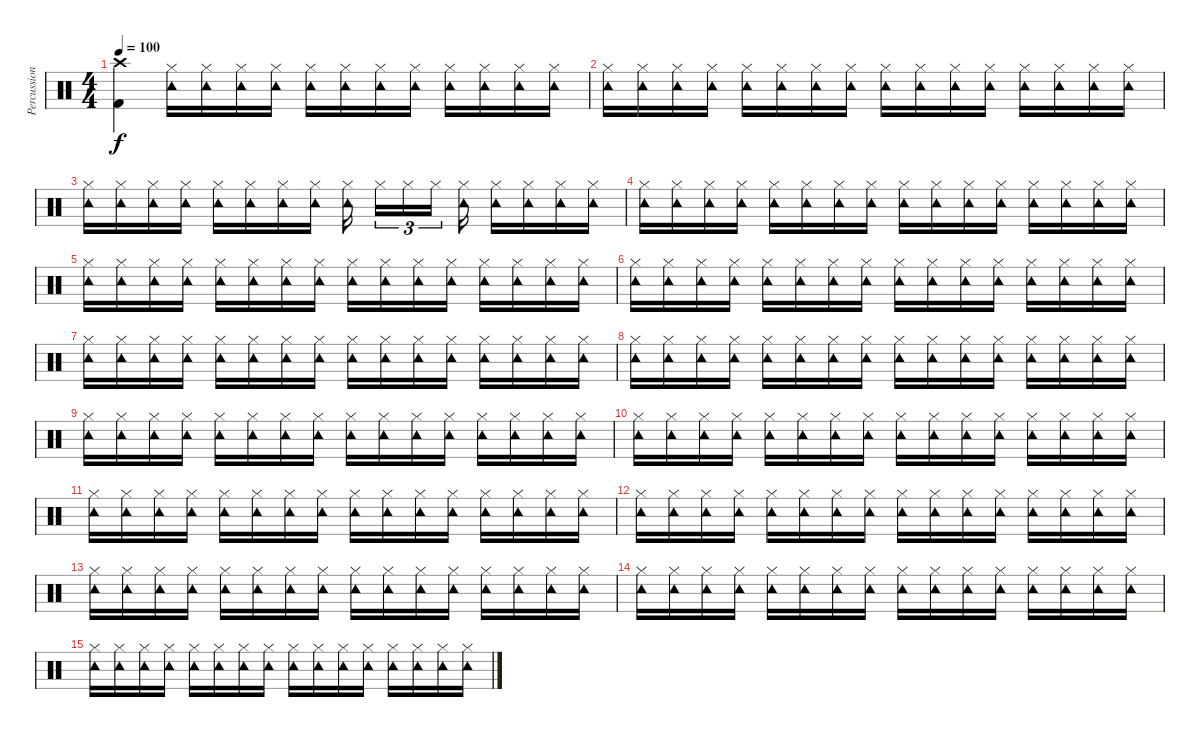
\track ("Percussion" "Percussion") {instrument percussion}
\staff {score}
\articulation defaults
\ts (4 4)
\tempo 100
\clef neutral
\ks c
("Crash high (hit)" "Kick (hit) 2").4{dy f} ("Hi-Hat (closed)" "Tambourine (hit)").16 ("Hi-Hat (closed)" "Tambourine (hit)").16 ("Hi-Hat (closed)" "Tambourine (hit)").16 ("Hi-Hat (closed)" "Tambourine (hit)").16 ("Hi-Hat (closed)" "Tambourine (hit)").16 ("Hi-Hat (closed)" "Tambourine (hit)").16 ("Hi-Hat (closed)" "Tambourine (hit)").16 ("Hi-Hat (closed)" "Tambourine (hit)").16 ("Hi-Hat (closed)" "Tambourine (hit)").16 ("Hi-Hat (closed)" "Tambourine (hit)").16 ("Hi-Hat (closed)" "Tambourine (hit)").16 ("Hi-Hat (closed)" "Tambourine (hit)").16 |
("Hi-Hat (closed)" "Tambourine (hit)").16 ("Hi-Hat (closed)" "Tambourine (hit)").16 ("Hi-Hat (closed)" "Tambourine (hit)").16 ("Hi-Hat (closed)" "Tambourine (hit)").16 ("Hi-Hat (closed)" "Tambourine (hit)").16 ("Hi-Hat (closed)" "Tambourine (hit)").16 ("Hi-Hat (closed)" "Tambourine (hit)").16 ("Hi-Hat (closed)" "Tambourine (hit)").16 ("Hi-Hat (closed)" "Tambourine (hit)").16 ("Hi-Hat (closed)" "Tambourine (hit)").16 ("Hi-Hat (closed)" "Tambourine (hit)").16 ("Hi-Hat (closed)" "Tambourine (hit)").16 ("Hi-Hat (closed)" "Tambourine (hit)").16 ("Hi-Hat (closed)" "Tambourine (hit)").16 ("Hi-Hat (closed)" "Tambourine (hit)").16 ("Hi-Hat (closed)" "Tambourine (hit)").16 |
("Hi-Hat (closed)" "Tambourine (hit)").16 ("Hi-Hat (closed)" "Tambourine (hit)").16 ("Hi-Hat (closed)" "Tambourine (hit)").16 ("Hi-Hat (closed)" "Tambourine (hit)").16 ("Hi-Hat (closed)" "Tambourine (hit)").16 ("Hi-Hat (closed)" "Tambourine (hit)").16 ("Hi-Hat (closed)" "Tambourine (hit)").16 ("Hi-Hat (closed)" "Tambourine (hit)").16 ("Hi-Hat (closed)" "Tambourine (hit)").16 "Hi-Hat (closed)".16{tu (3 2)} "Hi-Hat (closed)".16{tu (3 2)} "Hi-Hat (closed)".16{tu (3 2)} ("Hi-Hat (closed)" "Tambourine (hit)").16 ("Hi-Hat (closed)" "Tambourine (hit)").16 ("Hi-Hat (closed)" "Tambourine (hit)").16 ("Hi-Hat (closed)" "Tambourine (hit)").16 ("Hi-Hat (closed)" "Tambourine (hit)").16 |
("Hi-Hat (closed)" "Tambourine (hit)").16 ("Hi-Hat (closed)" "Tambourine (hit)").16 ("Hi-Hat (closed)" "Tambourine (hit)").16 ("Hi-Hat (closed)" "Tambourine (hit)").16 ("Hi-Hat (closed)" "Tambourine (hit)").16 ("Hi-Hat (closed)" "Tambourine (hit)").16 ("Hi-Hat (closed)" "Tambourine (hit)").16 ("Hi-Hat (closed)" "Tambourine (hit)").16 ("Hi-Hat (closed)" "Tambourine (hit)").16 ("Hi-Hat (closed)" "Tambourine (hit)").16 ("Hi-Hat (closed)" "Tambourine (hit)").16 ("Hi-Hat (closed)" "Tambourine (hit)").16 ("Hi-Hat (closed)" "Tambourine (hit)").16 ("Hi-Hat (closed)" "Tambourine (hit)").16 ("Hi-Hat (closed)" "Tambourine (hit)").16 ("Hi-Hat (closed)" "Tambourine (hit)").16 |
("Hi-Hat (closed)" "Tambourine (hit)").16 ("Hi-Hat (closed)" "Tambourine (hit)").16 ("Hi-Hat (closed)" "Tambourine (hit)").16 ("Hi-Hat (closed)" "Tambourine (hit)").16 ("Hi-Hat (closed)" "Tambourine (hit)").16 ("Hi-Hat (closed)" "Tambourine (hit)").16 ("Hi-Hat (closed)" "Tambourine (hit)").16 ("Hi-Hat (closed)" "Tambourine (hit)").16 ("Hi-Hat (closed)" "Tambourine (hit)").16 ("Hi-Hat (closed)" "Tambourine (hit)").16 ("Hi-Hat (closed)" "Tambourine (hit)").16 ("Hi-Hat (closed)" "Tambourine (hit)").16 ("Hi-Hat (closed)" "Tambourine (hit)").16 ("Hi-Hat (closed)" "Tambourine (hit)").16 ("Hi-Hat (closed)" "Tambourine (hit)").16 ("Hi-Hat (closed)" "Tambourine (hit)").16 |
("Hi-Hat (closed)" "Tambourine (hit)").16 ("Hi-Hat (closed)" "Tambourine (hit)").16 ("Hi-Hat (closed)" "Tambourine (hit)").16 ("Hi-Hat (closed)" "Tambourine (hit)").16 ("Hi-Hat (closed)" "Tambourine (hit)").16 ("Hi-Hat (closed)" "Tambourine (hit)").16 ("Hi-Hat (closed)" "Tambourine (hit)").16 ("Hi-Hat (closed)" "Tambourine (hit)").16 ("Hi-Hat (closed)" "Tambourine (hit)").16 ("Hi-Hat (closed)" "Tambourine (hit)").16 ("Hi-Hat (closed)" "Tambourine (hit)").16 ("Hi-Hat (closed)" "Tambourine (hit)").16 ("Hi-Hat (closed)" "Tambourine (hit)").16 ("Hi-Hat (closed)" "Tambourine (hit)").16 ("Hi-Hat (closed)" "Tambourine (hit)").16 ("Hi-Hat (closed)" "Tambourine (hit)").16 |
("Hi-Hat (closed)" "Tambourine (hit)").16 ("Hi-Hat (closed)" "Tambourine (hit)").16 ("Hi-Hat (closed)" "Tambourine (hit)").16 ("Hi-Hat (closed)" "Tambourine (hit)").16 ("Hi-Hat (closed)" "Tambourine (hit)").16 ("Hi-Hat (closed)" "Tambourine (hit)").16 ("Hi-Hat (closed)" "Tambourine (hit)").16 ("Hi-Hat (closed)" "Tambourine (hit)").16 ("Hi-Hat (closed)" "Tambourine (hit)").16 ("Hi-Hat (closed)" "Tambourine (hit)").16 ("Hi-Hat (closed)" "Tambourine (hit)").16 ("Hi-Hat (closed)" "Tambourine (hit)").16 ("Hi-Hat (closed)" "Tambourine (hit)").16 ("Hi-Hat (closed)" "Tambourine (hit)").16 ("Hi-Hat (closed)" "Tambourine (hit)").16 ("Hi-Hat (closed)" "Tambourine (hit)").16 |
("Hi-Hat (closed)" "Tambourine (hit)").16 ("Hi-Hat (closed)" "Tambourine (hit)").16 ("Hi-Hat (closed)" "Tambourine (hit)").16 ("Hi-Hat (closed)" "Tambourine (hit)").16 ("Hi-Hat (closed)" "Tambourine (hit)").16 ("Hi-Hat (closed)" "Tambourine (hit)").16 ("Hi-Hat (closed)" "Tambourine (hit)").16 ("Hi-Hat (closed)" "Tambourine (hit)").16 ("Hi-Hat (closed)" "Tambourine (hit)").16 ("Hi-Hat (closed)" "Tambourine (hit)").16 ("Hi-Hat (closed)" "Tambourine (hit)").16 ("Hi-Hat (closed)" "Tambourine (hit)").16 ("Hi-Hat (closed)" "Tambourine (hit)").16 ("Hi-Hat (closed)" "Tambourine (hit)").16 ("Hi-Hat (closed)" "Tambourine (hit)").16 ("Hi-Hat (closed)" "Tambourine (hit)").16 |
("Hi-Hat (closed)" "Tambourine (hit)").16 ("Hi-Hat (closed)" "Tambourine (hit)").16 ("Hi-Hat (closed)" "Tambourine (hit)").16 ("Hi-Hat (closed)" "Tambourine (hit)").16 ("Hi-Hat (closed)" "Tambourine (hit)").16 ("Hi-Hat (closed)" "Tambourine (hit)").16 ("Hi-Hat (closed)" "Tambourine (hit)").16 ("Hi-Hat (closed)" "Tambourine (hit)").16 ("Hi-Hat (closed)" "Tambourine (hit)").16 ("Hi-Hat (closed)" "Tambourine (hit)").16 ("Hi-Hat (closed)" "Tambourine (hit)").16 ("Hi-Hat (closed)" "Tambourine (hit)").16 ("Hi-Hat (closed)" "Tambourine (hit)").16 ("Hi-Hat (closed)" "Tambourine (hit)").16 ("Hi-Hat (closed)" "Tambourine (hit)").16 ("Hi-Hat (closed)" "Tambourine (hit)").16 |
("Hi-Hat (closed)" "Tambourine (hit)").16 ("Hi-Hat (closed)" "Tambourine (hit)").16 ("Hi-Hat (closed)" "Tambourine (hit)").16 ("Hi-Hat (closed)" "Tambourine (hit)").16 ("Hi-Hat (closed)" "Tambourine (hit)").16 ("Hi-Hat (closed)" "Tambourine (hit)").16 ("Hi-Hat (closed)" "Tambourine (hit)").16 ("Hi-Hat (closed)" "Tambourine (hit)").16 ("Hi-Hat (closed)" "Tambourine (hit)").16 ("Hi-Hat (closed)" "Tambourine (hit)").16 ("Hi-Hat (closed)" "Tambourine (hit)").16 ("Hi-Hat (closed)" "Tambourine (hit)").16 ("Hi-Hat (closed)" "Tambourine (hit)").16 ("Hi-Hat (closed)" "Tambourine (hit)").16 ("Hi-Hat (closed)" "Tambourine (hit)").16 ("Hi-Hat (closed)" "Tambourine (hit)").16 |
("Hi-Hat (closed)" "Tambourine (hit)").16 ("Hi-Hat (closed)" "Tambourine (hit)").16 ("Hi-Hat (closed)" "Tambourine (hit)").16 ("Hi-Hat (closed)" "Tambourine (hit)").16 ("Hi-Hat (closed)" "Tambourine (hit)").16 ("Hi-Hat (closed)" "Tambourine (hit)").16 ("Hi-Hat (closed)" "Tambourine (hit)").16 ("Hi-Hat (closed)" "Tambourine (hit)").16 ("Hi-Hat (closed)" "Tambourine (hit)").16 ("Hi-Hat (closed)" "Tambourine (hit)").16 ("Hi-Hat (closed)" "Tambourine (hit)").16 ("Hi-Hat (closed)" "Tambourine (hit)").16 ("Hi-Hat (closed)" "Tambourine (hit)").16 ("Hi-Hat (closed)" "Tambourine (hit)").16 ("Hi-Hat (closed)" "Tambourine (hit)").16 ("Hi-Hat (closed)" "Tambourine (hit)").16 |
("Hi-Hat (closed)" "Tambourine (hit)").16 ("Hi-Hat (closed)" "Tambourine (hit)").16 ("Hi-Hat (closed)" "Tambourine (hit)").16 ("Hi-Hat (closed)" "Tambourine (hit)").16 ("Hi-Hat (closed)" "Tambourine (hit)").16 ("Hi-Hat (closed)" "Tambourine (hit)").16 ("Hi-Hat (closed)" "Tambourine (hit)").16 ("Hi-Hat (closed)" "Tambourine (hit)").16 ("Hi-Hat (closed)" "Tambourine (hit)").16 ("Hi-Hat (closed)" "Tambourine (hit)").16 ("Hi-Hat (closed)" "Tambourine (hit)").16 ("Hi-Hat (closed)" "Tambourine (hit)").16 ("Hi-Hat (closed)" "Tambourine (hit)").16 ("Hi-Hat (closed)" "Tambourine (hit)").16 ("Hi-Hat (closed)" "Tambourine (hit)").16 ("Hi-Hat (closed)" "Tambourine (hit)").16 |
("Hi-Hat (closed)" "Tambourine (hit)").16 ("Hi-Hat (closed)" "Tambourine (hit)").16 ("Hi-Hat (closed)" "Tambourine (hit)").16 ("Hi-Hat (closed)" "Tambourine (hit)").16 ("Hi-Hat (closed)" "Tambourine (hit)").16 ("Hi-Hat (closed)" "Tambourine (hit)").16 ("Hi-Hat (closed)" "Tambourine (hit)").16 ("Hi-Hat (closed)" "Tambourine (hit)").16 ("Hi-Hat (closed)" "Tambourine (hit)").16 ("Hi-Hat (closed)" "Tambourine (hit)").16 ("Hi-Hat (closed)" "Tambourine (hit)").16 ("Hi-Hat (closed)" "Tambourine (hit)").16 ("Hi-Hat (closed)" "Tambourine (hit)").16 ("Hi-Hat (closed)" "Tambourine (hit)").16 ("Hi-Hat (closed)" "Tambourine (hit)").16 ("Hi-Hat (closed)" "Tambourine (hit)").16 |
("Hi-Hat (closed)" "Tambourine (hit)").16 ("Hi-Hat (closed)" "Tambourine (hit)").16 ("Hi-Hat (closed)" "Tambourine (hit)").16 ("Hi-Hat (closed)" "Tambourine (hit)").16 ("Hi-Hat (closed)" "Tambourine (hit)").16 ("Hi-Hat (closed)" "Tambourine (hit)").16 ("Hi-Hat (closed)" "Tambourine (hit)").16 ("Hi-Hat (closed)" "Tambourine (hit)").16 ("Hi-Hat (closed)" "Tambourine (hit)").16 ("Hi-Hat (closed)" "Tambourine (hit)").16 ("Hi-Hat (closed)" "Tambourine (hit)").16 ("Hi-Hat (closed)" "Tambourine (hit)").16 ("Hi-Hat (closed)" "Tambourine (hit)").16 ("Hi-Hat (closed)" "Tambourine (hit)").16 ("Hi-Hat (closed)" "Tambourine (hit)").16 ("Hi-Hat (closed)" "Tambourine (hit)").16 |
("Hi-Hat (closed)" "Tambourine (hit)").16 ("Hi-Hat (closed)" "Tambourine (hit)").16 ("Hi-Hat (closed)" "Tambourine (hit)").16 ("Hi-Hat (closed)" "Tambourine (hit)").16 ("Hi-Hat (closed)" "Tambourine (hit)").16 ("Hi-Hat (closed)" "Tambourine (hit)").16 ("Hi-Hat (closed)" "Tambourine (hit)").16 ("Hi-Hat (closed)" "Tambourine (hit)").16 ("Hi-Hat (closed)" "Tambourine (hit)").16 ("Hi-Hat (closed)" "Tambourine (hit)").16 ("Hi-Hat (closed)" "Tambourine (hit)").16 ("Hi-Hat (closed)" "Tambourine (hit)").16 ("Hi-Hat (closed)" "Tambourine (hit)").16 ("Hi-Hat (closed)" "Tambourine (hit)").16 ("Hi-Hat (closed)" "Tambourine (hit)").16 ("Hi-Hat (closed)" "Tambourine (hit)").16
